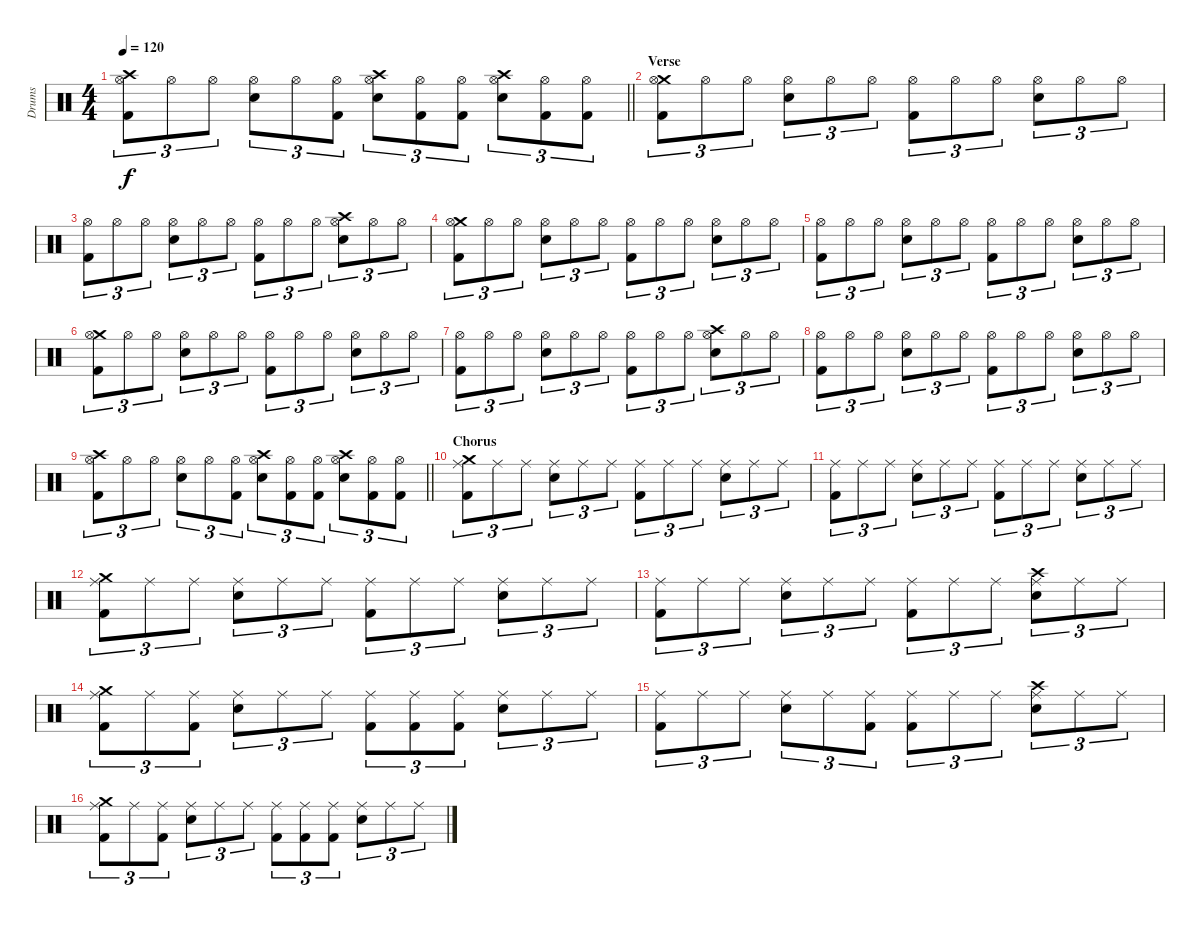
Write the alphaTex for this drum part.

\track ("Drums" "Drums") {instrument percussion}
\staff {score}
\articulation defaults
\ts (4 4)
\tempo 120
\clef neutral
\barLineRight lightlight
\ks c
("Crash high (hit)" "Hi-Hat (open)" "Kick (hit) 2").8{tu (3 2) dy f} "Hi-Hat (open)".8{tu (3 2)} "Hi-Hat (open)".8{tu (3 2)} ("Hi-Hat (open)" "Snare (hit) 2").8{tu (3 2)} "Hi-Hat (open)".8{tu (3 2)} ("Hi-Hat (open)" "Kick (hit) 2").8{tu (3 2)} ("Crash high (hit)" "Hi-Hat (open)" "Snare (hit) 2").8{tu (3 2)} ("Hi-Hat (open)" "Kick (hit) 2").8{tu (3 2)} ("Hi-Hat (open)" "Kick (hit) 2").8{tu (3 2)} ("Crash high (hit)" "Hi-Hat (open)" "Snare (hit) 2").8{tu (3 2)} ("Hi-Hat (open)" "Kick (hit) 2").8{tu (3 2)} ("Hi-Hat (open)" "Kick (hit) 2").8{tu (3 2)} |
\section ("" "Verse")
("Crash medium (hit)" "Hi-Hat (open)" "Kick (hit) 2").8{tu (3 2)} "Hi-Hat (open)".8{tu (3 2)} "Hi-Hat (open)".8{tu (3 2)} ("Hi-Hat (open)" "Snare (hit) 2").8{tu (3 2)} "Hi-Hat (open)".8{tu (3 2)} "Hi-Hat (open)".8{tu (3 2)} ("Hi-Hat (open)" "Kick (hit) 2").8{tu (3 2)} "Hi-Hat (open)".8{tu (3 2)} "Hi-Hat (open)".8{tu (3 2)} ("Hi-Hat (open)" "Snare (hit) 2").8{tu (3 2)} "Hi-Hat (open)".8{tu (3 2)} "Hi-Hat (open)".8{tu (3 2)} |
("Hi-Hat (open)" "Kick (hit) 2").8{tu (3 2)} "Hi-Hat (open)".8{tu (3 2)} "Hi-Hat (open)".8{tu (3 2)} ("Hi-Hat (open)" "Snare (hit) 2").8{tu (3 2)} "Hi-Hat (open)".8{tu (3 2)} "Hi-Hat (open)".8{tu (3 2)} ("Hi-Hat (open)" "Kick (hit) 2").8{tu (3 2)} "Hi-Hat (open)".8{tu (3 2)} "Hi-Hat (open)".8{tu (3 2)} ("Crash high (hit)" "Hi-Hat (open)" "Snare (hit) 2").8{tu (3 2)} "Hi-Hat (open)".8{tu (3 2)} "Hi-Hat (open)".8{tu (3 2)} |
("Crash medium (hit)" "Hi-Hat (open)" "Kick (hit) 2").8{tu (3 2)} "Hi-Hat (open)".8{tu (3 2)} "Hi-Hat (open)".8{tu (3 2)} ("Hi-Hat (open)" "Snare (hit) 2").8{tu (3 2)} "Hi-Hat (open)".8{tu (3 2)} "Hi-Hat (open)".8{tu (3 2)} ("Hi-Hat (open)" "Kick (hit) 2").8{tu (3 2)} "Hi-Hat (open)".8{tu (3 2)} "Hi-Hat (open)".8{tu (3 2)} ("Hi-Hat (open)" "Snare (hit) 2").8{tu (3 2)} "Hi-Hat (open)".8{tu (3 2)} "Hi-Hat (open)".8{tu (3 2)} |
("Hi-Hat (open)" "Kick (hit) 2").8{tu (3 2)} "Hi-Hat (open)".8{tu (3 2)} "Hi-Hat (open)".8{tu (3 2)} ("Hi-Hat (open)" "Snare (hit) 2").8{tu (3 2)} "Hi-Hat (open)".8{tu (3 2)} "Hi-Hat (open)".8{tu (3 2)} ("Hi-Hat (open)" "Kick (hit) 2").8{tu (3 2)} "Hi-Hat (open)".8{tu (3 2)} "Hi-Hat (open)".8{tu (3 2)} ("Hi-Hat (open)" "Snare (hit) 2").8{tu (3 2)} "Hi-Hat (open)".8{tu (3 2)} "Hi-Hat (open)".8{tu (3 2)} |
("Crash medium (hit)" "Hi-Hat (open)" "Kick (hit) 2").8{tu (3 2)} "Hi-Hat (open)".8{tu (3 2)} "Hi-Hat (open)".8{tu (3 2)} ("Hi-Hat (open)" "Snare (hit) 2").8{tu (3 2)} "Hi-Hat (open)".8{tu (3 2)} "Hi-Hat (open)".8{tu (3 2)} ("Hi-Hat (open)" "Kick (hit) 2").8{tu (3 2)} "Hi-Hat (open)".8{tu (3 2)} "Hi-Hat (open)".8{tu (3 2)} ("Hi-Hat (open)" "Snare (hit) 2").8{tu (3 2)} "Hi-Hat (open)".8{tu (3 2)} "Hi-Hat (open)".8{tu (3 2)} |
("Hi-Hat (open)" "Kick (hit) 2").8{tu (3 2)} "Hi-Hat (open)".8{tu (3 2)} "Hi-Hat (open)".8{tu (3 2)} ("Hi-Hat (open)" "Snare (hit) 2").8{tu (3 2)} "Hi-Hat (open)".8{tu (3 2)} "Hi-Hat (open)".8{tu (3 2)} ("Hi-Hat (open)" "Kick (hit) 2").8{tu (3 2)} "Hi-Hat (open)".8{tu (3 2)} "Hi-Hat (open)".8{tu (3 2)} ("Crash high (hit)" "Hi-Hat (open)" "Snare (hit) 2").8{tu (3 2)} "Hi-Hat (open)".8{tu (3 2)} "Hi-Hat (open)".8{tu (3 2)} |
("Hi-Hat (open)" "Kick (hit) 2").8{tu (3 2)} "Hi-Hat (open)".8{tu (3 2)} "Hi-Hat (open)".8{tu (3 2)} ("Hi-Hat (open)" "Snare (hit) 2").8{tu (3 2)} "Hi-Hat (open)".8{tu (3 2)} "Hi-Hat (open)".8{tu (3 2)} ("Hi-Hat (open)" "Kick (hit) 2").8{tu (3 2)} "Hi-Hat (open)".8{tu (3 2)} "Hi-Hat (open)".8{tu (3 2)} ("Hi-Hat (open)" "Snare (hit) 2").8{tu (3 2)} "Hi-Hat (open)".8{tu (3 2)} "Hi-Hat (open)".8{tu (3 2)} |
\barLineRight lightlight
("Crash high (hit)" "Hi-Hat (open)" "Kick (hit) 2").8{tu (3 2)} "Hi-Hat (open)".8{tu (3 2)} "Hi-Hat (open)".8{tu (3 2)} ("Hi-Hat (open)" "Snare (hit) 2").8{tu (3 2)} "Hi-Hat (open)".8{tu (3 2)} ("Hi-Hat (open)" "Kick (hit) 2").8{tu (3 2)} ("Crash high (hit)" "Hi-Hat (open)" "Snare (hit) 2").8{tu (3 2)} ("Hi-Hat (open)" "Kick (hit) 2").8{tu (3 2)} ("Hi-Hat (open)" "Kick (hit) 2").8{tu (3 2)} ("Crash high (hit)" "Hi-Hat (open)" "Snare (hit) 2").8{tu (3 2)} ("Hi-Hat (open)" "Kick (hit) 2").8{tu (3 2)} ("Hi-Hat (open)" "Kick (hit) 2").8{tu (3 2)} |
\section ("" "Chorus")
("Crash medium (hit)" "Ride (middle)" "Kick (hit) 2").8{tu (3 2)} "Ride (middle)".8{tu (3 2)} "Ride (middle)".8{tu (3 2)} ("Ride (middle)" "Snare (hit) 2").8{tu (3 2)} "Ride (middle)".8{tu (3 2)} "Ride (middle)".8{tu (3 2)} ("Ride (middle)" "Kick (hit) 2").8{tu (3 2)} "Ride (middle)".8{tu (3 2)} "Ride (middle)".8{tu (3 2)} ("Ride (middle)" "Snare (hit) 2").8{tu (3 2)} "Ride (middle)".8{tu (3 2)} "Ride (middle)".8{tu (3 2)} |
("Ride (middle)" "Kick (hit) 2").8{tu (3 2)} "Ride (middle)".8{tu (3 2)} "Ride (middle)".8{tu (3 2)} ("Ride (middle)" "Snare (hit) 2").8{tu (3 2)} "Ride (middle)".8{tu (3 2)} "Ride (middle)".8{tu (3 2)} ("Ride (middle)" "Kick (hit) 2").8{tu (3 2)} "Ride (middle)".8{tu (3 2)} "Ride (middle)".8{tu (3 2)} ("Ride (middle)" "Snare (hit) 2").8{tu (3 2)} "Ride (middle)".8{tu (3 2)} "Ride (middle)".8{tu (3 2)} |
("Crash medium (hit)" "Ride (middle)" "Kick (hit) 2").8{tu (3 2)} "Ride (middle)".8{tu (3 2)} "Ride (middle)".8{tu (3 2)} ("Ride (middle)" "Snare (hit) 2").8{tu (3 2)} "Ride (middle)".8{tu (3 2)} "Ride (middle)".8{tu (3 2)} ("Ride (middle)" "Kick (hit) 2").8{tu (3 2)} "Ride (middle)".8{tu (3 2)} "Ride (middle)".8{tu (3 2)} ("Ride (middle)" "Snare (hit) 2").8{tu (3 2)} "Ride (middle)".8{tu (3 2)} "Ride (middle)".8{tu (3 2)} |
("Ride (middle)" "Kick (hit) 2").8{tu (3 2)} "Ride (middle)".8{tu (3 2)} "Ride (middle)".8{tu (3 2)} ("Ride (middle)" "Snare (hit) 2").8{tu (3 2)} "Ride (middle)".8{tu (3 2)} "Ride (middle)".8{tu (3 2)} ("Ride (middle)" "Kick (hit) 2").8{tu (3 2)} "Ride (middle)".8{tu (3 2)} "Ride (middle)".8{tu (3 2)} ("Crash high (hit)" "Ride (middle)" "Snare (hit) 2").8{tu (3 2)} "Ride (middle)".8{tu (3 2)} "Ride (middle)".8{tu (3 2)} |
("Crash medium (hit)" "Ride (middle)" "Kick (hit) 2").8{tu (3 2)} "Ride (middle)".8{tu (3 2)} ("Ride (middle)" "Kick (hit) 2").8{tu (3 2)} ("Ride (middle)" "Snare (hit) 2").8{tu (3 2)} "Ride (middle)".8{tu (3 2)} "Ride (middle)".8{tu (3 2)} ("Ride (middle)" "Kick (hit) 2").8{tu (3 2)} ("Ride (middle)" "Kick (hit) 2").8{tu (3 2)} ("Ride (middle)" "Kick (hit) 2").8{tu (3 2)} ("Ride (middle)" "Snare (hit) 2").8{tu (3 2)} "Ride (middle)".8{tu (3 2)} "Ride (middle)".8{tu (3 2)} |
("Ride (middle)" "Kick (hit) 2").8{tu (3 2)} "Ride (middle)".8{tu (3 2)} "Ride (middle)".8{tu (3 2)} ("Ride (middle)" "Snare (hit) 2").8{tu (3 2)} "Ride (middle)".8{tu (3 2)} ("Ride (middle)" "Kick (hit) 2").8{tu (3 2)} ("Ride (middle)" "Kick (hit) 2").8{tu (3 2)} "Ride (middle)".8{tu (3 2)} "Ride (middle)".8{tu (3 2)} ("Crash high (hit)" "Ride (middle)" "Snare (hit) 2").8{tu (3 2)} "Ride (middle)".8{tu (3 2)} "Ride (middle)".8{tu (3 2)} |
("Crash medium (hit)" "Ride (middle)" "Kick (hit) 2").8{tu (3 2)} "Ride (middle)".8{tu (3 2)} ("Ride (middle)" "Kick (hit) 2").8{tu (3 2)} ("Ride (middle)" "Snare (hit) 2").8{tu (3 2)} "Ride (middle)".8{tu (3 2)} "Ride (middle)".8{tu (3 2)} ("Ride (middle)" "Kick (hit) 2").8{tu (3 2)} ("Ride (middle)" "Kick (hit) 2").8{tu (3 2)} ("Ride (middle)" "Kick (hit) 2").8{tu (3 2)} ("Ride (middle)" "Snare (hit) 2").8{tu (3 2)} "Ride (middle)".8{tu (3 2)} "Ride (middle)".8{tu (3 2)}
